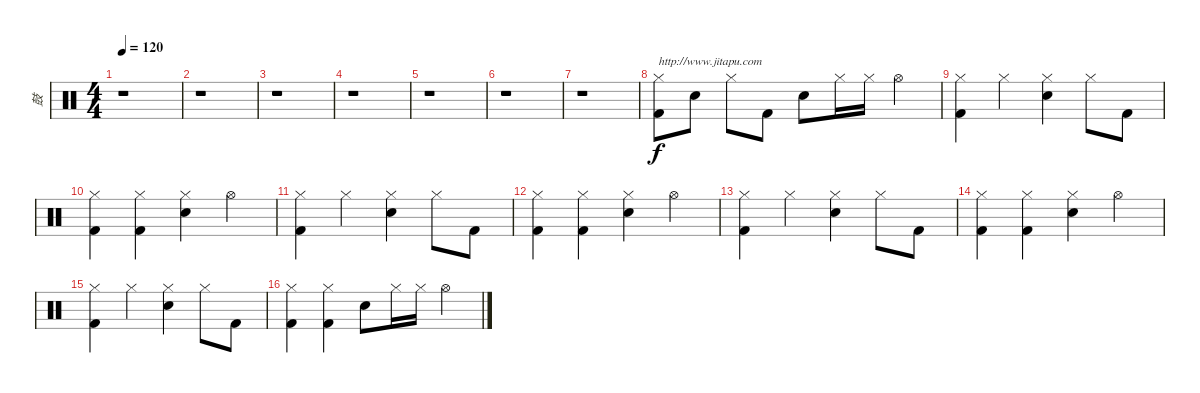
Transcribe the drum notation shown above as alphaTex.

\track ("鼓" "鼓") {instrument percussion}
\staff {score}
\articulation defaults
\ts (4 4)
\tempo 120
\clef neutral
\ks c
r.1{dy f} |
r.1 |
r.1 |
r.1 |
r.1 |
r.1 |
r.1 |
("Hi-Hat (closed)" "Kick (hit) 2").8{txt "http://www.jitapu.com"} "Electric Snare (hit)".8 "Hi-Hat (closed)".8 "Kick (hit) 2".8 "Electric Snare (hit)".8 "Hi-Hat (closed)".16 "Hi-Hat (closed)".16 "Hi-Hat (open)".4 |
("Hi-Hat (closed)" "Kick (hit) 2").4 "Hi-Hat (closed)".4 ("Hi-Hat (closed)" "Electric Snare (hit)").4 "Hi-Hat (closed)".8 "Kick (hit) 2".8 |
("Hi-Hat (closed)" "Kick (hit) 2").4 ("Hi-Hat (closed)" "Kick (hit) 2").4 ("Hi-Hat (closed)" "Electric Snare (hit)").4 "Hi-Hat (open)".4 |
("Hi-Hat (closed)" "Kick (hit) 2").4 "Hi-Hat (closed)".4 ("Hi-Hat (closed)" "Electric Snare (hit)").4 "Hi-Hat (closed)".8 "Kick (hit) 2".8 |
("Hi-Hat (closed)" "Kick (hit) 2").4 ("Hi-Hat (closed)" "Kick (hit) 2").4 ("Hi-Hat (closed)" "Electric Snare (hit)").4 "Hi-Hat (open)".4 |
("Hi-Hat (closed)" "Kick (hit) 2").4 "Hi-Hat (closed)".4 ("Hi-Hat (closed)" "Electric Snare (hit)").4 "Hi-Hat (closed)".8 "Kick (hit) 2".8 |
("Hi-Hat (closed)" "Kick (hit) 2").4 ("Hi-Hat (closed)" "Kick (hit) 2").4 ("Hi-Hat (closed)" "Electric Snare (hit)").4 "Hi-Hat (open)".4 |
("Hi-Hat (closed)" "Kick (hit) 2").4 "Hi-Hat (closed)".4 ("Hi-Hat (closed)" "Electric Snare (hit)").4 "Hi-Hat (closed)".8 "Kick (hit) 2".8 |
("Hi-Hat (closed)" "Kick (hit) 2").4 ("Hi-Hat (closed)" "Kick (hit) 2").4 "Electric Snare (hit)".8 "Hi-Hat (closed)".16 "Hi-Hat (closed)".16 "Hi-Hat (open)".4
